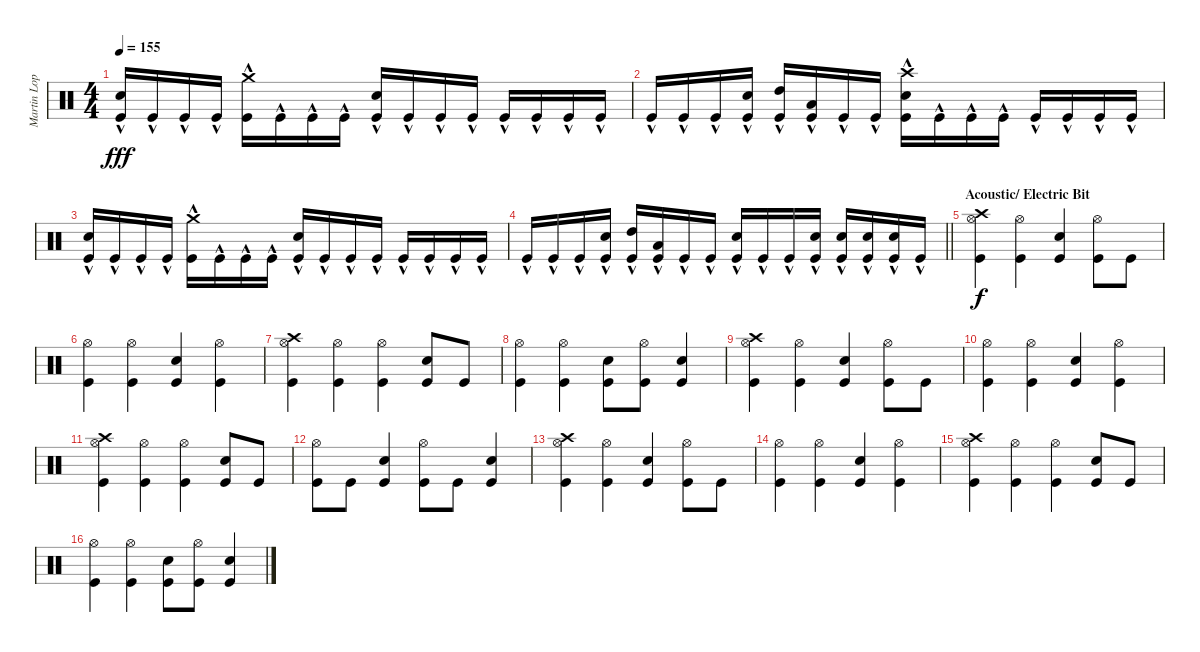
\track ("Martin Lopez" "Martin Lop") {instrument percussion}
\staff {score}
\articulation defaults
\ts (4 4)
\tempo 155
\clef neutral
\ks c
("Electric Snare (hit)" "Kick (hit)"{hac}).16{dy fff} "Kick (hit)"{hac}.16 "Kick (hit)"{hac}.16 "Kick (hit)"{hac}.16 ("Crash medium (hit)" "Kick (hit)"{hac}).16 "Kick (hit)"{hac}.16 "Kick (hit)"{hac}.16 "Kick (hit)"{hac}.16 ("Electric Snare (hit)" "Kick (hit)"{hac}).16 "Kick (hit)"{hac}.16 "Kick (hit)"{hac}.16 "Kick (hit)"{hac}.16 "Kick (hit)"{hac}.16 "Kick (hit)"{hac}.16 "Kick (hit)"{hac}.16 "Kick (hit)"{hac}.16 |
"Kick (hit)"{hac}.16 "Kick (hit)"{hac}.16 "Kick (hit)"{hac}.16 ("Electric Snare (hit)" "Kick (hit)"{hac}).16 ("High Tom (hit)" "Kick (hit)"{hac}).16 ("Low Tom (hit)" "Kick (hit)"{hac}).16 "Kick (hit)"{hac}.16 "Kick (hit)"{hac}.16 ("Crash high (hit)" "Electric Snare (hit)" "Kick (hit)"{hac}).16 "Kick (hit)"{hac}.16 "Kick (hit)"{hac}.16 "Kick (hit)"{hac}.16 "Kick (hit)"{hac}.16 "Kick (hit)"{hac}.16 "Kick (hit)"{hac}.16 "Kick (hit)"{hac}.16 |
("Electric Snare (hit)" "Kick (hit)"{hac}).16 "Kick (hit)"{hac}.16 "Kick (hit)"{hac}.16 "Kick (hit)"{hac}.16 ("Crash medium (hit)" "Kick (hit)"{hac}).16 "Kick (hit)"{hac}.16 "Kick (hit)"{hac}.16 "Kick (hit)"{hac}.16 ("Electric Snare (hit)" "Kick (hit)"{hac}).16 "Kick (hit)"{hac}.16 "Kick (hit)"{hac}.16 "Kick (hit)"{hac}.16 "Kick (hit)"{hac}.16 "Kick (hit)"{hac}.16 "Kick (hit)"{hac}.16 "Kick (hit)"{hac}.16 |
\barLineRight lightlight "Kick (hit)"{hac}.16 "Kick (hit)"{hac}.16 "Kick (hit)"{hac}.16
("Electric Snare (hit)" "Kick (hit)"{hac}).16 ("High Tom (hit)" "Kick (hit)"{hac}).16 ("Low Tom (hit)" "Kick (hit)"{hac}).16 "Kick (hit)"{hac}.16 "Kick (hit)"{hac}.16 ("Electric Snare (hit)" "Kick (hit)"{hac}).16 "Kick (hit)"{hac}.16 "Kick (hit)"{hac}.16 ("Electric Snare (hit)" "Kick (hit)"{hac}).16 ("Electric Snare (hit)" "Kick (hit)"{hac}).16 ("Electric Snare (hit)" "Kick (hit)"{hac}).16 ("Electric Snare (hit)" "Kick (hit)"{hac}).16 "Kick (hit)"{hac}.16 |
\section ("" "Acoustic/ Electric Bit")
("Crash high (hit)" "Hi-Hat (open)" "Kick (hit)").4{dy f} ("Hi-Hat (open)" "Kick (hit)").4 ("Electric Snare (hit)" "Kick (hit)").4 ("Hi-Hat (open)" "Kick (hit)").8 "Kick (hit)".8 |
("Hi-Hat (open)" "Kick (hit)").4 ("Hi-Hat (open)" "Kick (hit)").4 ("Electric Snare (hit)" "Kick (hit)").4 ("Hi-Hat (open)" "Kick (hit)").4 |
("Crash high (hit)" "Hi-Hat (open)" "Kick (hit)").4 ("Hi-Hat (open)" "Kick (hit)").4 ("Hi-Hat (open)" "Kick (hit)").4 ("Electric Snare (hit)" "Kick (hit)").8 "Kick (hit)".8 |
("Hi-Hat (open)" "Kick (hit)").4 ("Hi-Hat (open)" "Kick (hit)").4 ("Electric Snare (hit)" "Kick (hit)").8 ("Hi-Hat (open)" "Kick (hit)").8 ("Electric Snare (hit)" "Kick (hit)").4 |
("Crash high (hit)" "Hi-Hat (open)" "Kick (hit)").4 ("Hi-Hat (open)" "Kick (hit)").4 ("Electric Snare (hit)" "Kick (hit)").4 ("Hi-Hat (open)" "Kick (hit)").8 "Kick (hit)".8 |
("Hi-Hat (open)" "Kick (hit)").4 ("Hi-Hat (open)" "Kick (hit)").4 ("Electric Snare (hit)" "Kick (hit)").4 ("Hi-Hat (open)" "Kick (hit)").4 |
("Crash high (hit)" "Hi-Hat (open)" "Kick (hit)").4 ("Hi-Hat (open)" "Kick (hit)").4 ("Hi-Hat (open)" "Kick (hit)").4 ("Electric Snare (hit)" "Kick (hit)").8 "Kick (hit)".8 |
("Hi-Hat (open)" "Kick (hit)").8 "Kick (hit)".8 ("Electric Snare (hit)" "Kick (hit)").4 ("Hi-Hat (open)" "Kick (hit)").8 "Kick (hit)".8 ("Electric Snare (hit)" "Kick (hit)").4 |
("Crash high (hit)" "Hi-Hat (open)" "Kick (hit)").4 ("Hi-Hat (open)" "Kick (hit)").4 ("Electric Snare (hit)" "Kick (hit)").4 ("Hi-Hat (open)" "Kick (hit)").8 "Kick (hit)".8 |
("Hi-Hat (open)" "Kick (hit)").4 ("Hi-Hat (open)" "Kick (hit)").4 ("Electric Snare (hit)" "Kick (hit)").4 ("Hi-Hat (open)" "Kick (hit)").4 |
("Crash high (hit)" "Hi-Hat (open)" "Kick (hit)").4 ("Hi-Hat (open)" "Kick (hit)").4 ("Hi-Hat (open)" "Kick (hit)").4 ("Electric Snare (hit)" "Kick (hit)").8 "Kick (hit)".8 |
("Hi-Hat (open)" "Kick (hit)").4 ("Hi-Hat (open)" "Kick (hit)").4 ("Electric Snare (hit)" "Kick (hit)").8 ("Hi-Hat (open)" "Kick (hit)").8 ("Electric Snare (hit)" "Kick (hit)").4
